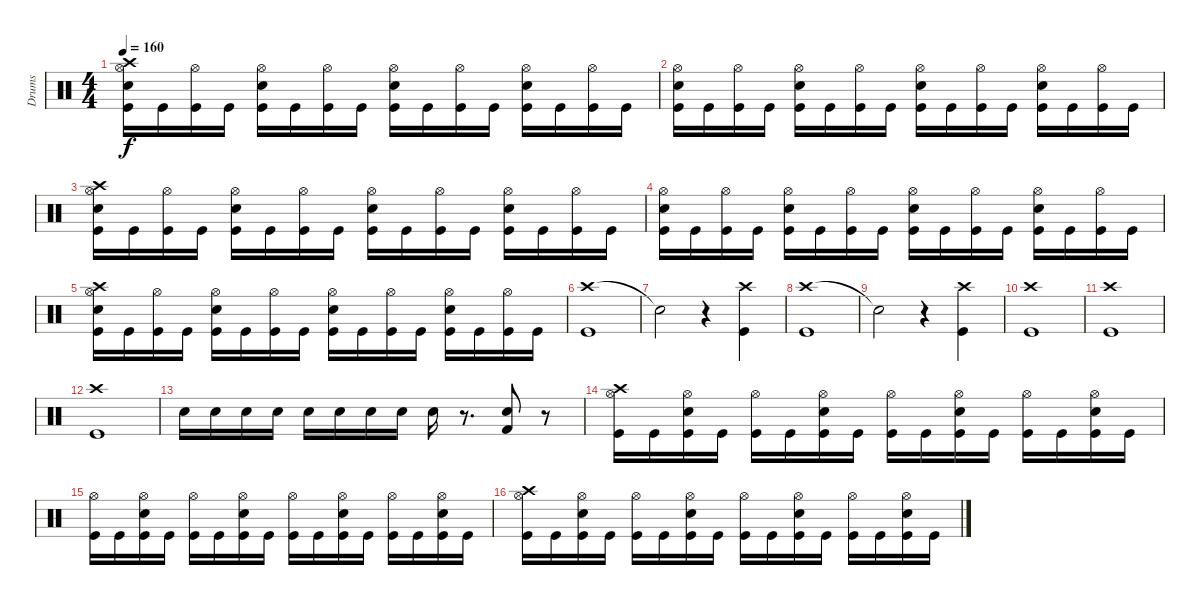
\track ("Drums" "Drums") {instrument percussion}
\staff {score}
\articulation defaults
\ts (4 4)
\tempo 160
\clef neutral
\ks c
("Electric Snare (hit)" "Crash high (hit)" "Hi-Hat (open)" "Kick (hit)").16{dy f} "Kick (hit)".16 ("Hi-Hat (open)" "Kick (hit)").16 "Kick (hit)".16 ("Electric Snare (hit)" "Hi-Hat (open)" "Kick (hit)").16 "Kick (hit)".16 ("Hi-Hat (open)" "Kick (hit)").16 "Kick (hit)".16 ("Electric Snare (hit)" "Hi-Hat (open)" "Kick (hit)").16 "Kick (hit)".16 ("Hi-Hat (open)" "Kick (hit)").16 "Kick (hit)".16 ("Electric Snare (hit)" "Hi-Hat (open)" "Kick (hit)").16 "Kick (hit)".16 ("Hi-Hat (open)" "Kick (hit)").16 "Kick (hit)".16 |
("Electric Snare (hit)" "Hi-Hat (open)" "Kick (hit)").16 "Kick (hit)".16 ("Hi-Hat (open)" "Kick (hit)").16 "Kick (hit)".16 ("Electric Snare (hit)" "Hi-Hat (open)" "Kick (hit)").16 "Kick (hit)".16 ("Hi-Hat (open)" "Kick (hit)").16 "Kick (hit)".16 ("Electric Snare (hit)" "Hi-Hat (open)" "Kick (hit)").16 "Kick (hit)".16 ("Hi-Hat (open)" "Kick (hit)").16 "Kick (hit)".16 ("Electric Snare (hit)" "Hi-Hat (open)" "Kick (hit)").16 "Kick (hit)".16 ("Hi-Hat (open)" "Kick (hit)").16 "Kick (hit)".16 |
("Electric Snare (hit)" "Crash high (hit)" "Hi-Hat (open)" "Kick (hit)").16 "Kick (hit)".16 ("Hi-Hat (open)" "Kick (hit)").16 "Kick (hit)".16 ("Electric Snare (hit)" "Hi-Hat (open)" "Kick (hit)").16 "Kick (hit)".16 ("Hi-Hat (open)" "Kick (hit)").16 "Kick (hit)".16 ("Electric Snare (hit)" "Hi-Hat (open)" "Kick (hit)").16 "Kick (hit)".16 ("Hi-Hat (open)" "Kick (hit)").16 "Kick (hit)".16 ("Electric Snare (hit)" "Hi-Hat (open)" "Kick (hit)").16 "Kick (hit)".16 ("Hi-Hat (open)" "Kick (hit)").16 "Kick (hit)".16 |
("Electric Snare (hit)" "Hi-Hat (open)" "Kick (hit)").16 "Kick (hit)".16 ("Hi-Hat (open)" "Kick (hit)").16 "Kick (hit)".16 ("Electric Snare (hit)" "Hi-Hat (open)" "Kick (hit)").16 "Kick (hit)".16 ("Hi-Hat (open)" "Kick (hit)").16 "Kick (hit)".16 ("Electric Snare (hit)" "Hi-Hat (open)" "Kick (hit)").16 "Kick (hit)".16 ("Hi-Hat (open)" "Kick (hit)").16 "Kick (hit)".16 ("Electric Snare (hit)" "Hi-Hat (open)" "Kick (hit)").16 "Kick (hit)".16 ("Hi-Hat (open)" "Kick (hit)").16 "Kick (hit)".16 |
("Electric Snare (hit)" "Crash high (hit)" "Hi-Hat (open)" "Kick (hit)").16 "Kick (hit)".16 ("Hi-Hat (open)" "Kick (hit)").16 "Kick (hit)".16 ("Electric Snare (hit)" "Hi-Hat (open)" "Kick (hit)").16 "Kick (hit)".16 ("Hi-Hat (open)" "Kick (hit)").16 "Kick (hit)".16 ("Electric Snare (hit)" "Hi-Hat (open)" "Kick (hit)").16 "Kick (hit)".16 ("Hi-Hat (open)" "Kick (hit)").16 "Kick (hit)".16 ("Electric Snare (hit)" "Hi-Hat (open)" "Kick (hit)").16 "Kick (hit)".16 ("Hi-Hat (open)" "Kick (hit)").16 "Kick (hit)".16 |
("Crash high (hit)" "Kick (hit)").1 |
"Snare (hit)"{t}.2 r.4 ("Crash high (hit)" "Kick (hit)").4 |
("Crash high (hit)" "Kick (hit)").1 |
"Snare (hit)"{t}.2 r.4 ("Crash high (hit)" "Kick (hit)").4 |
("Crash high (hit)" "Kick (hit)").1 |
("Crash high (hit)" "Kick (hit)").1 |
("Crash high (hit)" "Kick (hit)").1 |
"Electric Snare (hit)".16 "Electric Snare (hit)".16 "Electric Snare (hit)".16 "Electric Snare (hit)".16 "Electric Snare (hit)".16 "Electric Snare (hit)".16 "Electric Snare (hit)".16 "Electric Snare (hit)".16 "Electric Snare (hit)".16 r.8{d} ("Kick (hit) 2" "Electric Snare (hit)").8 r.8 |
("Crash high (hit)" "Hi-Hat (open)" "Kick (hit)").16 "Kick (hit)".16 ("Hi-Hat (open)" "Electric Snare (hit)" "Kick (hit)").16 "Kick (hit)".16 ("Hi-Hat (open)" "Kick (hit)").16 "Kick (hit)".16 ("Hi-Hat (open)" "Electric Snare (hit)" "Kick (hit)").16 "Kick (hit)".16 ("Hi-Hat (open)" "Kick (hit)").16 "Kick (hit)".16 ("Hi-Hat (open)" "Electric Snare (hit)" "Kick (hit)").16 "Kick (hit)".16 ("Hi-Hat (open)" "Kick (hit)").16 "Kick (hit)".16 ("Hi-Hat (open)" "Electric Snare (hit)" "Kick (hit)").16 "Kick (hit)".16 |
("Hi-Hat (open)" "Kick (hit)").16 "Kick (hit)".16 ("Hi-Hat (open)" "Electric Snare (hit)" "Kick (hit)").16 "Kick (hit)".16 ("Hi-Hat (open)" "Kick (hit)").16 "Kick (hit)".16 ("Hi-Hat (open)" "Electric Snare (hit)" "Kick (hit)").16 "Kick (hit)".16 ("Hi-Hat (open)" "Kick (hit)").16 "Kick (hit)".16 ("Hi-Hat (open)" "Electric Snare (hit)" "Kick (hit)").16 "Kick (hit)".16 ("Hi-Hat (open)" "Kick (hit)").16 "Kick (hit)".16 ("Hi-Hat (open)" "Electric Snare (hit)" "Kick (hit)").16 "Kick (hit)".16 |
("Crash high (hit)" "Hi-Hat (open)" "Kick (hit)").16 "Kick (hit)".16 ("Hi-Hat (open)" "Electric Snare (hit)" "Kick (hit)").16 "Kick (hit)".16 ("Hi-Hat (open)" "Kick (hit)").16 "Kick (hit)".16 ("Hi-Hat (open)" "Electric Snare (hit)" "Kick (hit)").16 "Kick (hit)".16 ("Hi-Hat (open)" "Kick (hit)").16 "Kick (hit)".16 ("Hi-Hat (open)" "Electric Snare (hit)" "Kick (hit)").16 "Kick (hit)".16 ("Hi-Hat (open)" "Kick (hit)").16 "Kick (hit)".16 ("Hi-Hat (open)" "Electric Snare (hit)" "Kick (hit)").16 "Kick (hit)".16
